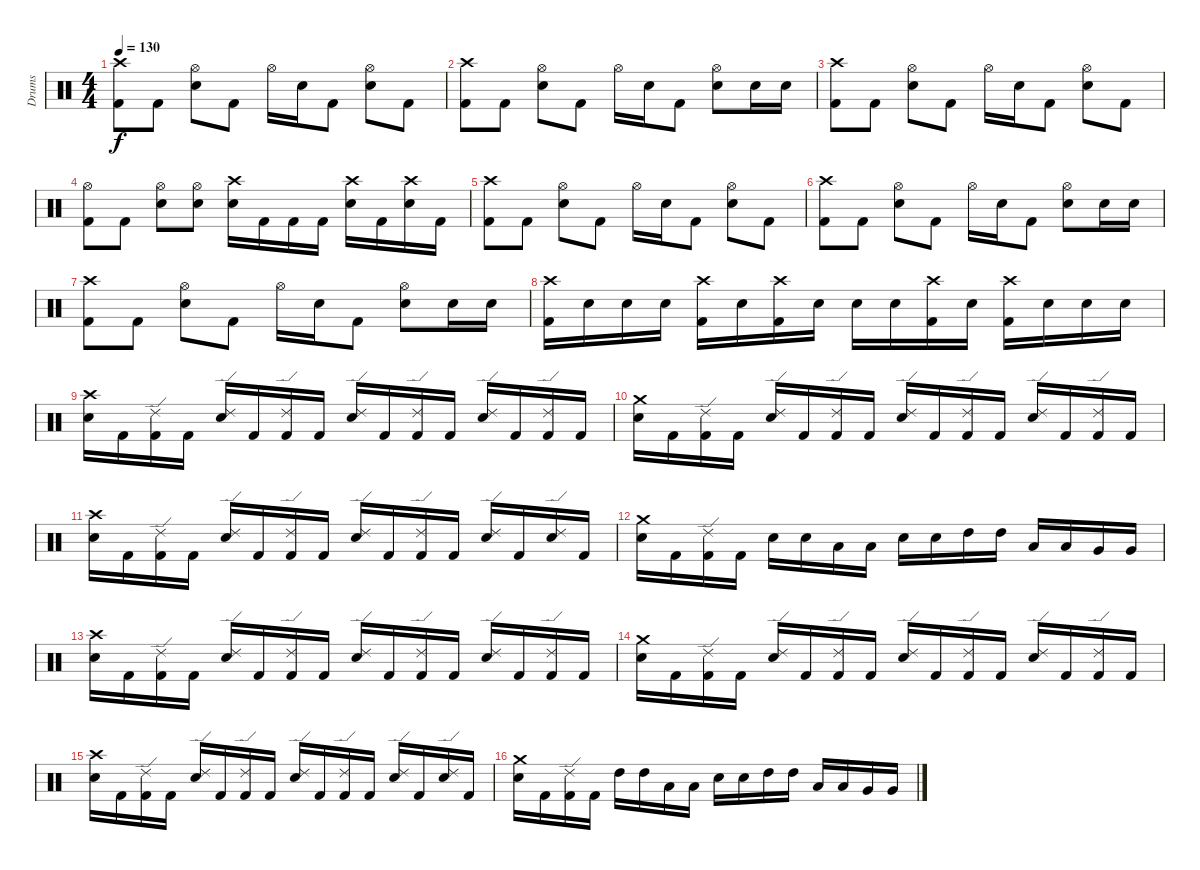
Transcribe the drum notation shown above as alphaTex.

\track ("Drums" "Drums") {instrument percussion}
\staff {score}
\articulation defaults
\ts (4 4)
\tempo 130
\clef neutral
\ks c
("Crash high (hit)" "Kick (hit) 2").8{dy f} "Kick (hit) 2".8 ("Electric Snare (hit)" "Hi-Hat (open)").8 "Kick (hit) 2".8 "Hi-Hat (open)".16 "Electric Snare (hit)".16 "Kick (hit) 2".8 ("Hi-Hat (open)" "Electric Snare (hit)").8 "Kick (hit) 2".8 |
("Crash high (hit)" "Kick (hit) 2").8 "Kick (hit) 2".8 ("Electric Snare (hit)" "Hi-Hat (open)").8 "Kick (hit) 2".8 "Hi-Hat (open)".16 "Electric Snare (hit)".16 "Kick (hit) 2".8 ("Hi-Hat (open)" "Electric Snare (hit)").8 "Electric Snare (hit)".16 "Electric Snare (hit)".16 |
("Crash high (hit)" "Kick (hit) 2").8 "Kick (hit) 2".8 ("Electric Snare (hit)" "Hi-Hat (open)").8 "Kick (hit) 2".8 "Hi-Hat (open)".16 "Electric Snare (hit)".16 "Kick (hit) 2".8 ("Hi-Hat (open)" "Electric Snare (hit)").8 "Kick (hit) 2".8 |
("Hi-Hat (open)" "Kick (hit) 2").8 "Kick (hit) 2".8 ("Electric Snare (hit)" "Hi-Hat (open)").8 ("Hi-Hat (open)" "Electric Snare (hit)").8 ("Electric Snare (hit)" "Crash high (hit)").16 "Kick (hit) 2".16 "Kick (hit) 2".16 "Kick (hit) 2".16 ("Crash high (hit)" "Electric Snare (hit)").16 "Kick (hit) 2".16 ("Electric Snare (hit)" "Crash high (hit)").16 "Kick (hit) 2".16 |
("Crash high (hit)" "Kick (hit) 2").8 "Kick (hit) 2".8 ("Electric Snare (hit)" "Hi-Hat (open)").8 "Kick (hit) 2".8 "Hi-Hat (open)".16 "Electric Snare (hit)".16 "Kick (hit) 2".8 ("Hi-Hat (open)" "Electric Snare (hit)").8 "Kick (hit) 2".8 |
("Crash high (hit)" "Kick (hit) 2").8 "Kick (hit) 2".8 ("Electric Snare (hit)" "Hi-Hat (open)").8 "Kick (hit) 2".8 "Hi-Hat (open)".16 "Electric Snare (hit)".16 "Kick (hit) 2".8 ("Hi-Hat (open)" "Electric Snare (hit)").8 "Electric Snare (hit)".16 "Electric Snare (hit)".16 |
("Crash high (hit)" "Kick (hit) 2").8 "Kick (hit) 2".8 ("Electric Snare (hit)" "Hi-Hat (open)").8 "Kick (hit) 2".8 "Hi-Hat (open)".16 "Electric Snare (hit)".16 "Kick (hit) 2".8 ("Hi-Hat (open)" "Electric Snare (hit)").8 "Electric Snare (hit)".16 "Electric Snare (hit)".16 |
("Crash high (hit)" "Kick (hit) 2").16 "Electric Snare (hit)".16 "Electric Snare (hit)".16 "Electric Snare (hit)".16 ("Crash high (hit)" "Kick (hit) 2").16 "Electric Snare (hit)".16 ("Crash high (hit)" "Kick (hit) 2").16 "Electric Snare (hit)".16 "Electric Snare (hit)".16 "Electric Snare (hit)".16 ("Crash high (hit)" "Kick (hit) 2").16 "Electric Snare (hit)".16 ("Crash high (hit)" "Kick (hit) 2").16 "Electric Snare (hit)".16 "Electric Snare (hit)".16 "Electric Snare (hit)".16 |
("Crash high (hit)" "Electric Snare (hit)").16 "Kick (hit) 2".16 ("Kick (hit) 2" "Ride (edge) 2").16 "Kick (hit) 2".16 ("Electric Snare (hit)" "Ride (edge) 2").16 "Kick (hit) 2".16 ("Ride (edge) 2" "Kick (hit) 2").16 "Kick (hit) 2".16 ("Electric Snare (hit)" "Ride (edge) 2").16 "Kick (hit) 2".16 ("Ride (edge) 2" "Kick (hit) 2").16 "Kick (hit) 2".16 ("Electric Snare (hit)" "Ride (edge) 2").16 "Kick (hit) 2".16 ("Ride (edge) 2" "Kick (hit) 2").16 "Kick (hit) 2".16 |
("Crash medium (hit)" "Electric Snare (hit)").16 "Kick (hit) 2".16 ("Kick (hit) 2" "Ride (edge) 2").16 "Kick (hit) 2".16 ("Electric Snare (hit)" "Ride (edge) 2").16 "Kick (hit) 2".16 ("Ride (edge) 2" "Kick (hit) 2").16 "Kick (hit) 2".16 ("Electric Snare (hit)" "Ride (edge) 2").16 "Kick (hit) 2".16 ("Ride (edge) 2" "Kick (hit) 2").16 "Kick (hit) 2".16 ("Electric Snare (hit)" "Ride (edge) 2").16 "Kick (hit) 2".16 ("Ride (edge) 2" "Kick (hit) 2").16 "Kick (hit) 2".16 |
("Crash high (hit)" "Electric Snare (hit)").16 "Kick (hit) 2".16 ("Kick (hit) 2" "Ride (edge) 2").16 "Kick (hit) 2".16 ("Electric Snare (hit)" "Ride (edge) 2").16 "Kick (hit) 2".16 ("Ride (edge) 2" "Kick (hit) 2").16 "Kick (hit) 2".16 ("Electric Snare (hit)" "Ride (edge) 2").16 "Kick (hit) 2".16 ("Ride (edge) 2" "Kick (hit) 2").16 "Kick (hit) 2".16 ("Electric Snare (hit)" "Ride (edge) 2").16 "Kick (hit) 2".16 ("Ride (edge) 2" "Electric Snare (hit)").16 "Kick (hit) 2".16 |
("Crash medium (hit)" "Electric Snare (hit)").16 "Kick (hit) 2".16 ("Kick (hit) 2" "Ride (edge) 2").16 "Kick (hit) 2".16 "Electric Snare (hit)".16 "Electric Snare (hit)".16 "Low Tom (hit)".16 "Low Tom (hit)".16 "Electric Snare (hit)".16 "Electric Snare (hit)".16 "High Tom (hit)".16 "High Tom (hit)".16 "Low Tom (hit)".16 "Low Tom (hit)".16 "Very Low Tom (hit)".16 "Very Low Tom (hit)".16 |
("Crash high (hit)" "Electric Snare (hit)").16 "Kick (hit) 2".16 ("Kick (hit) 2" "Ride (edge) 2").16 "Kick (hit) 2".16 ("Electric Snare (hit)" "Ride (edge) 2").16 "Kick (hit) 2".16 ("Ride (edge) 2" "Kick (hit) 2").16 "Kick (hit) 2".16 ("Electric Snare (hit)" "Ride (edge) 2").16 "Kick (hit) 2".16 ("Ride (edge) 2" "Kick (hit) 2").16 "Kick (hit) 2".16 ("Electric Snare (hit)" "Ride (edge) 2").16 "Kick (hit) 2".16 ("Ride (edge) 2" "Kick (hit) 2").16 "Kick (hit) 2".16 |
("Crash medium (hit)" "Electric Snare (hit)").16 "Kick (hit) 2".16 ("Kick (hit) 2" "Ride (edge) 2").16 "Kick (hit) 2".16 ("Electric Snare (hit)" "Ride (edge) 2").16 "Kick (hit) 2".16 ("Ride (edge) 2" "Kick (hit) 2").16 "Kick (hit) 2".16 ("Electric Snare (hit)" "Ride (edge) 2").16 "Kick (hit) 2".16 ("Ride (edge) 2" "Kick (hit) 2").16 "Kick (hit) 2".16 ("Electric Snare (hit)" "Ride (edge) 2").16 "Kick (hit) 2".16 ("Ride (edge) 2" "Kick (hit) 2").16 "Kick (hit) 2".16 |
("Crash high (hit)" "Electric Snare (hit)").16 "Kick (hit) 2".16 ("Kick (hit) 2" "Ride (edge) 2").16 "Kick (hit) 2".16 ("Electric Snare (hit)" "Ride (edge) 2").16 "Kick (hit) 2".16 ("Ride (edge) 2" "Kick (hit) 2").16 "Kick (hit) 2".16 ("Electric Snare (hit)" "Ride (edge) 2").16 "Kick (hit) 2".16 ("Ride (edge) 2" "Kick (hit) 2").16 "Kick (hit) 2".16 ("Electric Snare (hit)" "Ride (edge) 2").16 "Kick (hit) 2".16 ("Ride (edge) 2" "Electric Snare (hit)").16 "Kick (hit) 2".16 |
("Crash medium (hit)" "Electric Snare (hit)").16 "Kick (hit) 2".16 ("Kick (hit) 2" "Ride (edge) 2").16 "Kick (hit) 2".16 "High Tom (hit)".16 "High Tom (hit)".16 "Low Tom (hit)".16 "Low Tom (hit)".16 "Electric Snare (hit)".16 "Electric Snare (hit)".16 "High Tom (hit)".16 "High Tom (hit)".16 "Low Tom (hit)".16 "Low Tom (hit)".16 "Very Low Tom (hit)".16 "Very Low Tom (hit)".16
